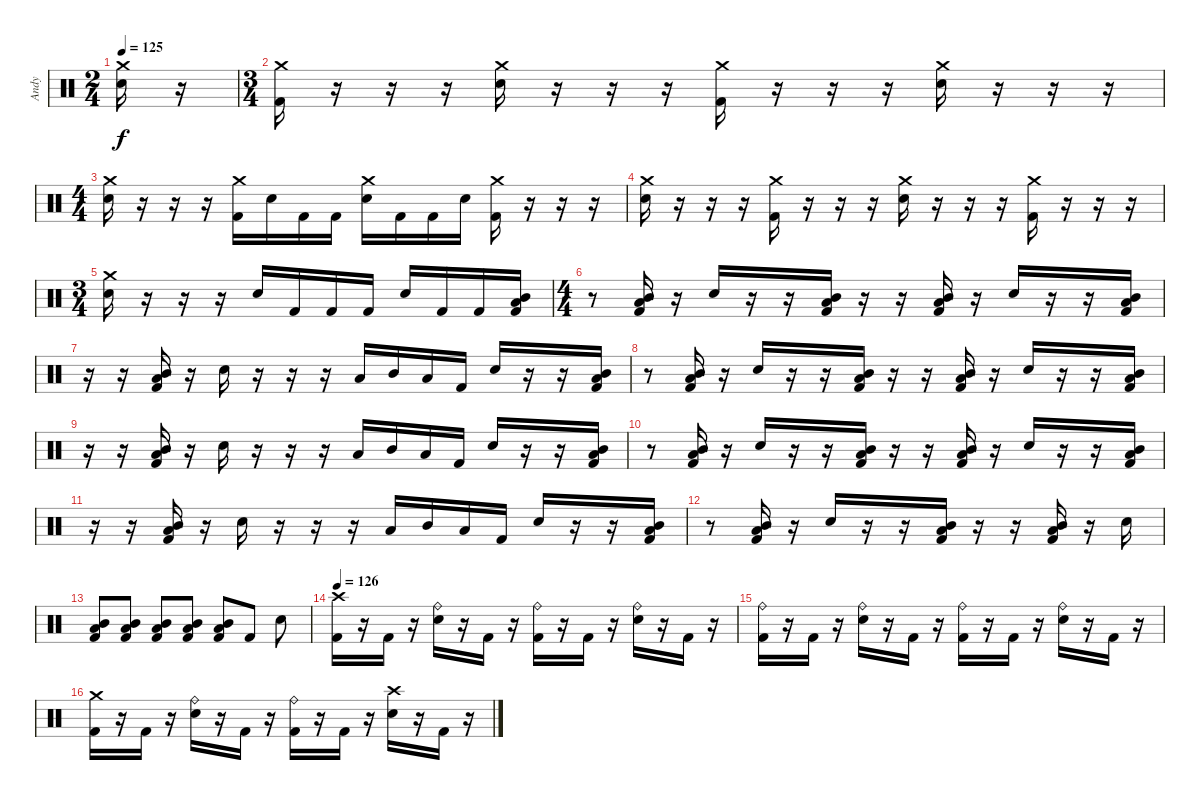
\track ("Andy" "Andy") {instrument percussion}
\staff {score}
\articulation defaults
\ts (2 4)
\tempo 125
\clef neutral
\ks c
("Crash medium (hit)" "Electric Snare (hit)").16{dy f} r.16 |
\ts (3 4)
("Crash medium (hit)" "Kick (hit) 2").16 r.16 r.16 r.16 ("Crash medium (hit)" "Electric Snare (hit)").16 r.16 r.16 r.16 ("Crash medium (hit)" "Kick (hit) 2").16 r.16 r.16 r.16 ("Crash medium (hit)" "Electric Snare (hit)").16 r.16 r.16 r.16 |
\ts (4 4)
("Crash medium (hit)" "Electric Snare (hit)").16 r.16 r.16 r.16 ("Crash medium (hit)" "Kick (hit) 2").16 "Electric Snare (hit)".16 "Kick (hit) 2".16 "Kick (hit) 2".16 ("Crash medium (hit)" "Electric Snare (hit)").16 "Kick (hit) 2".16 "Kick (hit) 2".16 "Electric Snare (hit)".16 ("Crash medium (hit)" "Kick (hit) 2").16 r.16 r.16 r.16 |
("Crash medium (hit)" "Electric Snare (hit)").16 r.16 r.16 r.16 ("Crash medium (hit)" "Kick (hit) 2").16 r.16 r.16 r.16 ("Crash medium (hit)" "Electric Snare (hit)").16 r.16 r.16 r.16 ("Crash medium (hit)" "Kick (hit) 2").16 r.16 r.16 r.16 |
\ts (3 4)
("Crash medium (hit)" "Electric Snare (hit)").16 r.16 r.16 r.16 "Electric Snare (hit)".16 "Kick (hit) 2".16 "Kick (hit) 2".16 "Kick (hit) 2".16 "Electric Snare (hit)".16 "Kick (hit) 2".16 "Kick (hit) 2".16 ("Mid Tom (hit)" "Low Tom (hit)" "Kick (hit) 2").16 |
\ts (4 4)
r.8 ("Mid Tom (hit)" "Low Tom (hit)" "Kick (hit) 2").16 r.16 "Electric Snare (hit)".16 r.16 r.16 ("Mid Tom (hit)" "Low Tom (hit)" "Kick (hit) 2").16 r.16 r.16 ("Mid Tom (hit)" "Low Tom (hit)" "Kick (hit) 2").16 r.16 "Electric Snare (hit)".16 r.16 r.16 ("Mid Tom (hit)" "Low Tom (hit)" "Kick (hit) 2").16 |
r.16 r.16 ("Mid Tom (hit)" "Low Tom (hit)" "Kick (hit) 2").16 r.16 "Electric Snare (hit)".16 r.16 r.16 r.16 "Low Tom (hit)".16 "Mid Tom (hit)".16 "Low Tom (hit)".16 "Kick (hit) 2".16 "Electric Snare (hit)".16 r.16 r.16 ("Mid Tom (hit)" "Low Tom (hit)" "Kick (hit) 2").16 |
r.8 ("Mid Tom (hit)" "Low Tom (hit)" "Kick (hit) 2").16 r.16 "Electric Snare (hit)".16 r.16 r.16 ("Mid Tom (hit)" "Low Tom (hit)" "Kick (hit) 2").16 r.16 r.16 ("Mid Tom (hit)" "Low Tom (hit)" "Kick (hit) 2").16 r.16 "Electric Snare (hit)".16 r.16 r.16 ("Mid Tom (hit)" "Low Tom (hit)" "Kick (hit) 2").16 |
r.16 r.16 ("Mid Tom (hit)" "Low Tom (hit)" "Kick (hit) 2").16 r.16 "Electric Snare (hit)".16 r.16 r.16 r.16 "Low Tom (hit)".16 "Mid Tom (hit)".16 "Low Tom (hit)".16 "Kick (hit) 2".16 "Electric Snare (hit)".16 r.16 r.16 ("Mid Tom (hit)" "Low Tom (hit)" "Kick (hit) 2").16 |
r.8 ("Mid Tom (hit)" "Low Tom (hit)" "Kick (hit) 2").16 r.16 "Electric Snare (hit)".16 r.16 r.16 ("Mid Tom (hit)" "Low Tom (hit)" "Kick (hit) 2").16 r.16 r.16 ("Mid Tom (hit)" "Low Tom (hit)" "Kick (hit) 2").16 r.16 "Electric Snare (hit)".16 r.16 r.16 ("Mid Tom (hit)" "Low Tom (hit)" "Kick (hit) 2").16 |
r.16 r.16 ("Mid Tom (hit)" "Low Tom (hit)" "Kick (hit) 2").16 r.16 "Electric Snare (hit)".16 r.16 r.16 r.16 "Low Tom (hit)".16 "Mid Tom (hit)".16 "Low Tom (hit)".16 "Kick (hit) 2".16 "Electric Snare (hit)".16 r.16 r.16 ("Mid Tom (hit)" "Low Tom (hit)" "Kick (hit) 2").16 |
r.8 ("Mid Tom (hit)" "Low Tom (hit)" "Kick (hit) 2").16 r.16 "Electric Snare (hit)".16 r.16 r.16 ("Mid Tom (hit)" "Low Tom (hit)" "Kick (hit) 2").16 r.16 r.16 ("Mid Tom (hit)" "Low Tom (hit)" "Kick (hit) 2").16 r.16 "Electric Snare (hit)".16 |
("Mid Tom (hit)" "Low Tom (hit)" "Kick (hit) 2").8 ("Mid Tom (hit)" "Low Tom (hit)" "Kick (hit) 2").8 ("Mid Tom (hit)" "Low Tom (hit)" "Kick (hit) 2").8 ("Mid Tom (hit)" "Low Tom (hit)" "Kick (hit) 2").8 ("Mid Tom (hit)" "Low Tom (hit)" "Kick (hit) 2").8 "Kick (hit) 2".8 "Electric Snare (hit)".8 |
\tempo 126
("Crash high (hit)" "Kick (hit) 2").16 r.16 "Kick (hit) 2".16 r.16 ("Ride (bell)" "Electric Snare (hit)").16 r.16 "Kick (hit) 2".16 r.16 ("Ride (bell)" "Kick (hit) 2").16 r.16 "Kick (hit) 2".16 r.16 ("Ride (bell)" "Electric Snare (hit)").16 r.16 "Kick (hit) 2".16 r.16 |
("Ride (bell)" "Kick (hit) 2").16 r.16 "Kick (hit) 2".16 r.16 ("Ride (bell)" "Electric Snare (hit)").16 r.16 "Kick (hit) 2".16 r.16 ("Ride (bell)" "Kick (hit) 2").16 r.16 "Kick (hit) 2".16 r.16 ("Ride (bell)" "Electric Snare (hit)").16 r.16 "Kick (hit) 2".16 r.16 |
("Crash medium (hit)" "Kick (hit) 2").16 r.16 "Kick (hit) 2".16 r.16 ("Ride (bell)" "Electric Snare (hit)").16 r.16 "Kick (hit) 2".16 r.16 ("Ride (bell)" "Kick (hit) 2").16 r.16 "Kick (hit) 2".16 r.16 ("Crash high (hit)" "Electric Snare (hit)").16 r.16 "Kick (hit) 2".16 r.16
